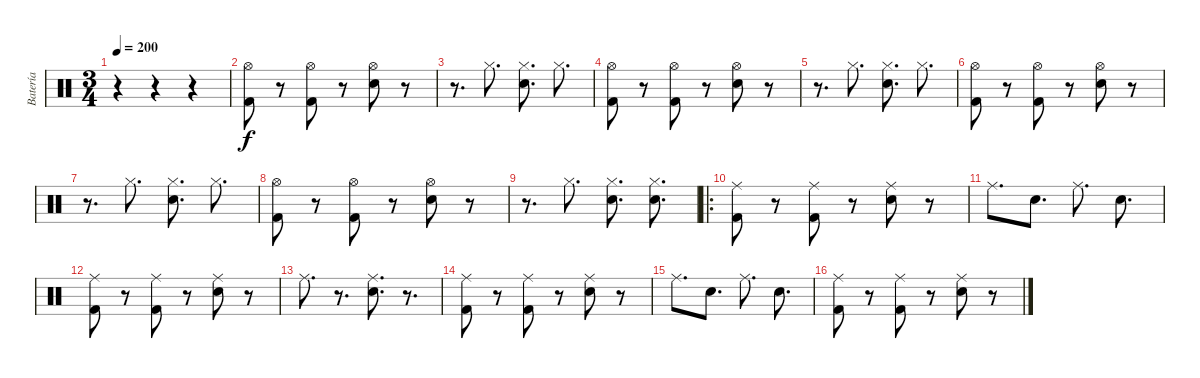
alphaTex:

\track ("Batería" "Batería") {instrument percussion}
\staff {score}
\articulation defaults
\ts (3 4)
\tempo 200
\clef neutral
\ks c
r.4{dy f} r.4 r.4 |
("Kick (hit) 2" "Hi-Hat (open)").8 r.8 ("Kick (hit) 2" "Hi-Hat (open)").8 r.8 ("Snare (hit) 2" "Hi-Hat (open)").8 r.8 |
r.8{d} "Hi-Hat (closed)".8{d} ("Snare (hit) 2" "Hi-Hat (closed)").8{d} "Hi-Hat (closed)".8{d} |
("Kick (hit) 2" "Hi-Hat (open)").8 r.8 ("Kick (hit) 2" "Hi-Hat (open)").8 r.8 ("Snare (hit) 2" "Hi-Hat (open)").8 r.8 |
r.8{d} "Hi-Hat (closed)".8{d} ("Snare (hit) 2" "Hi-Hat (closed)").8{d} "Hi-Hat (closed)".8{d} |
("Kick (hit) 2" "Hi-Hat (open)").8 r.8 ("Kick (hit) 2" "Hi-Hat (open)").8 r.8 ("Snare (hit) 2" "Hi-Hat (open)").8 r.8 |
r.8{d} "Hi-Hat (closed)".8{d} ("Snare (hit) 2" "Hi-Hat (closed)").8{d} "Hi-Hat (closed)".8{d} |
("Kick (hit) 2" "Hi-Hat (open)").8 r.8 ("Kick (hit) 2" "Hi-Hat (open)").8 r.8 ("Snare (hit) 2" "Hi-Hat (open)").8 r.8 |
r.8{d} "Hi-Hat (closed)".8{d} ("Snare (hit) 2" "Hi-Hat (closed)").8{d} ("Snare (hit) 2" "Hi-Hat (closed)").8{d} |
\ro
("Kick (hit) 2" "Ride (middle)").8 r.8 ("Kick (hit) 2" "Ride (middle)").8 r.8 ("Snare (hit) 2" "Ride (middle)").8 r.8 |
"Ride (middle)".8{d} "Snare (hit) 2".8{d} "Ride (middle)".8{d} "Snare (hit) 2".8{d} |
("Kick (hit) 2" "Ride (middle)").8 r.8 ("Kick (hit) 2" "Ride (middle)").8 r.8 ("Snare (hit) 2" "Ride (middle)").8 r.8 |
"Ride (middle)".8{d} r.8{d} ("Snare (hit) 2" "Ride (middle)").8{d} r.8{d} |
("Kick (hit) 2" "Ride (middle)").8 r.8 ("Kick (hit) 2" "Ride (middle)").8 r.8 ("Snare (hit) 2" "Ride (middle)").8 r.8 |
"Ride (middle)".8{d} "Snare (hit) 2".8{d} "Ride (middle)".8{d} "Snare (hit) 2".8{d} |
("Kick (hit) 2" "Ride (middle)").8 r.8 ("Kick (hit) 2" "Ride (middle)").8 r.8 ("Snare (hit) 2" "Ride (middle)").8 r.8
